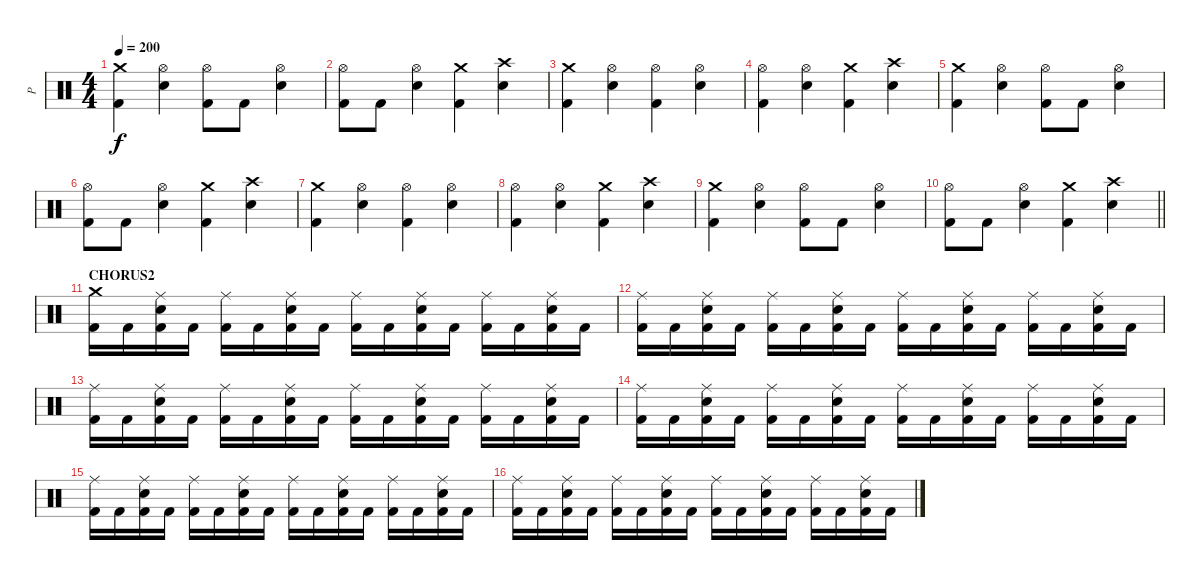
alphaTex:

\track ("P" "P") {instrument percussion}
\staff {score}
\articulation defaults
\ts (4 4)
\tempo 200
\clef neutral
\ks c
("Crash medium (hit)" "Kick (hit) 2").4{dy f} ("Hi-Hat (open)" "Electric Snare (hit)").4 ("Hi-Hat (open)" "Kick (hit) 2").8 "Kick (hit) 2".8 ("Hi-Hat (open)" "Electric Snare (hit)").4 |
("Hi-Hat (open)" "Kick (hit) 2").8 "Kick (hit) 2".8 ("Hi-Hat (open)" "Electric Snare (hit)").4 ("Crash medium (hit)" "Kick (hit) 2").4 ("Crash high (hit)" "Electric Snare (hit)").4 |
("Crash medium (hit)" "Kick (hit) 2").4 ("Hi-Hat (open)" "Electric Snare (hit)").4 ("Hi-Hat (open)" "Kick (hit) 2").4 ("Hi-Hat (open)" "Electric Snare (hit)").4 |
("Hi-Hat (open)" "Kick (hit) 2").4 ("Hi-Hat (open)" "Electric Snare (hit)").4 ("Crash medium (hit)" "Kick (hit) 2").4 ("Crash high (hit)" "Electric Snare (hit)").4 |
("Crash medium (hit)" "Kick (hit) 2").4 ("Hi-Hat (open)" "Electric Snare (hit)").4 ("Hi-Hat (open)" "Kick (hit) 2").8 "Kick (hit) 2".8 ("Hi-Hat (open)" "Electric Snare (hit)").4 |
("Hi-Hat (open)" "Kick (hit) 2").8 "Kick (hit) 2".8 ("Hi-Hat (open)" "Electric Snare (hit)").4 ("Crash medium (hit)" "Kick (hit) 2").4 ("Crash high (hit)" "Electric Snare (hit)").4 |
("Crash medium (hit)" "Kick (hit) 2").4 ("Hi-Hat (open)" "Electric Snare (hit)").4 ("Hi-Hat (open)" "Kick (hit) 2").4 ("Hi-Hat (open)" "Electric Snare (hit)").4 |
("Hi-Hat (open)" "Kick (hit) 2").4 ("Hi-Hat (open)" "Electric Snare (hit)").4 ("Crash medium (hit)" "Kick (hit) 2").4 ("Crash high (hit)" "Electric Snare (hit)").4 |
("Crash medium (hit)" "Kick (hit) 2").4 ("Hi-Hat (open)" "Electric Snare (hit)").4 ("Hi-Hat (open)" "Kick (hit) 2").8 "Kick (hit) 2".8 ("Hi-Hat (open)" "Electric Snare (hit)").4 |
\barLineRight lightlight
("Hi-Hat (open)" "Kick (hit) 2").8 "Kick (hit) 2".8 ("Hi-Hat (open)" "Electric Snare (hit)").4 ("Crash medium (hit)" "Kick (hit) 2").4 ("Crash high (hit)" "Electric Snare (hit)").4 |
\section ("" "CHORUS2")
("Crash medium (hit)" "Kick (hit) 2").16 "Kick (hit) 2".16 ("Ride (middle)" "Electric Snare (hit)" "Kick (hit) 2").16 "Kick (hit) 2".16 ("Ride (middle)" "Kick (hit) 2").16 "Kick (hit) 2".16 ("Ride (middle)" "Electric Snare (hit)" "Kick (hit) 2").16 "Kick (hit) 2".16 ("Ride (middle)" "Kick (hit) 2").16 "Kick (hit) 2".16 ("Ride (middle)" "Electric Snare (hit)" "Kick (hit) 2").16 "Kick (hit) 2".16 ("Ride (middle)" "Kick (hit) 2").16 "Kick (hit) 2".16 ("Ride (middle)" "Electric Snare (hit)" "Kick (hit) 2").16 "Kick (hit) 2".16 |
("Ride (middle)" "Kick (hit) 2").16 "Kick (hit) 2".16 ("Ride (middle)" "Electric Snare (hit)" "Kick (hit) 2").16 "Kick (hit) 2".16 ("Ride (middle)" "Kick (hit) 2").16 "Kick (hit) 2".16 ("Ride (middle)" "Electric Snare (hit)" "Kick (hit) 2").16 "Kick (hit) 2".16 ("Ride (middle)" "Kick (hit) 2").16 "Kick (hit) 2".16 ("Ride (middle)" "Electric Snare (hit)" "Kick (hit) 2").16 "Kick (hit) 2".16 ("Ride (middle)" "Kick (hit) 2").16 "Kick (hit) 2".16 ("Ride (middle)" "Electric Snare (hit)" "Kick (hit) 2").16 "Kick (hit) 2".16 |
("Ride (middle)" "Kick (hit) 2").16 "Kick (hit) 2".16 ("Ride (middle)" "Electric Snare (hit)" "Kick (hit) 2").16 "Kick (hit) 2".16 ("Ride (middle)" "Kick (hit) 2").16 "Kick (hit) 2".16 ("Ride (middle)" "Electric Snare (hit)" "Kick (hit) 2").16 "Kick (hit) 2".16 ("Ride (middle)" "Kick (hit) 2").16 "Kick (hit) 2".16 ("Ride (middle)" "Electric Snare (hit)" "Kick (hit) 2").16 "Kick (hit) 2".16 ("Ride (middle)" "Kick (hit) 2").16 "Kick (hit) 2".16 ("Ride (middle)" "Electric Snare (hit)" "Kick (hit) 2").16 "Kick (hit) 2".16 |
("Ride (middle)" "Kick (hit) 2").16 "Kick (hit) 2".16 ("Ride (middle)" "Electric Snare (hit)" "Kick (hit) 2").16 "Kick (hit) 2".16 ("Ride (middle)" "Kick (hit) 2").16 "Kick (hit) 2".16 ("Ride (middle)" "Electric Snare (hit)" "Kick (hit) 2").16 "Kick (hit) 2".16 ("Ride (middle)" "Kick (hit) 2").16 "Kick (hit) 2".16 ("Ride (middle)" "Electric Snare (hit)" "Kick (hit) 2").16 "Kick (hit) 2".16 ("Ride (middle)" "Kick (hit) 2").16 "Kick (hit) 2".16 ("Ride (middle)" "Electric Snare (hit)" "Kick (hit) 2").16 "Kick (hit) 2".16 |
("Ride (middle)" "Kick (hit) 2").16 "Kick (hit) 2".16 ("Ride (middle)" "Electric Snare (hit)" "Kick (hit) 2").16 "Kick (hit) 2".16 ("Ride (middle)" "Kick (hit) 2").16 "Kick (hit) 2".16 ("Ride (middle)" "Electric Snare (hit)" "Kick (hit) 2").16 "Kick (hit) 2".16 ("Ride (middle)" "Kick (hit) 2").16 "Kick (hit) 2".16 ("Ride (middle)" "Electric Snare (hit)" "Kick (hit) 2").16 "Kick (hit) 2".16 ("Ride (middle)" "Kick (hit) 2").16 "Kick (hit) 2".16 ("Ride (middle)" "Electric Snare (hit)" "Kick (hit) 2").16 "Kick (hit) 2".16 |
("Ride (middle)" "Kick (hit) 2").16 "Kick (hit) 2".16 ("Ride (middle)" "Electric Snare (hit)" "Kick (hit) 2").16 "Kick (hit) 2".16 ("Ride (middle)" "Kick (hit) 2").16 "Kick (hit) 2".16 ("Ride (middle)" "Electric Snare (hit)" "Kick (hit) 2").16 "Kick (hit) 2".16 ("Ride (middle)" "Kick (hit) 2").16 "Kick (hit) 2".16 ("Ride (middle)" "Electric Snare (hit)" "Kick (hit) 2").16 "Kick (hit) 2".16 ("Ride (middle)" "Kick (hit) 2").16 "Kick (hit) 2".16 ("Ride (middle)" "Electric Snare (hit)" "Kick (hit) 2").16 "Kick (hit) 2".16
